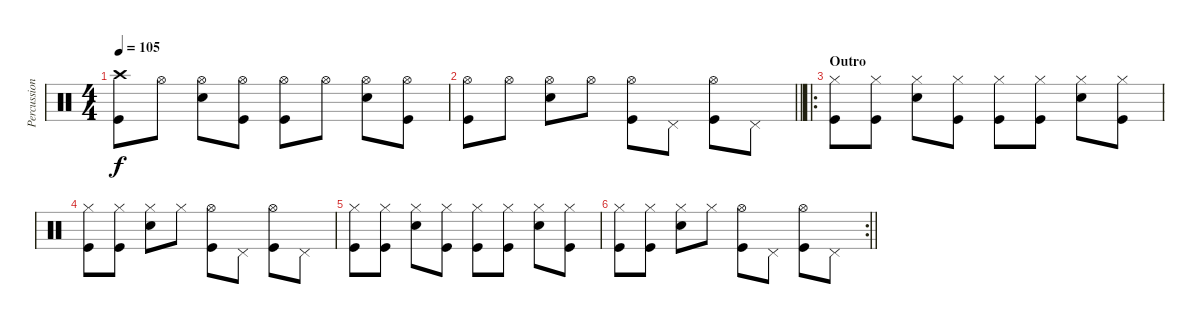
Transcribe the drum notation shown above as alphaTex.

\track ("Percussion" "Percussion") {instrument percussion}
\staff {score}
\articulation defaults
\ts (4 4)
\tempo 105
\clef neutral
\ks c
("Crash high (hit)" "Kick (hit)").8{dy f} "Hi-Hat (open)".8 ("Hi-Hat (open)" "Snare (hit) 2").8 ("Hi-Hat (open)" "Kick (hit)").8 ("Hi-Hat (open)" "Kick (hit)").8 "Hi-Hat (open)".8 ("Hi-Hat (open)" "Snare (hit) 2").8 ("Hi-Hat (open)" "Kick (hit)").8 |
\barLineRight lightlight
("Hi-Hat (open)" "Kick (hit)").8 "Hi-Hat (open)".8 ("Hi-Hat (open)" "Snare (hit) 2").8 "Hi-Hat (open)".8 ("Hi-Hat (open)" "Kick (hit)").8 "Pedal Hi-Hat (hit)".8 ("Hi-Hat (open)" "Kick (hit)").8 "Pedal Hi-Hat (hit)".8 |
\ro
\section ("" "Outro")
("Hi-Hat (closed)" "Kick (hit)").8 ("Hi-Hat (closed)" "Kick (hit)").8 ("Hi-Hat (closed)" "Electric Snare (hit)").8 ("Hi-Hat (closed)" "Kick (hit)").8 ("Hi-Hat (closed)" "Kick (hit)").8 ("Hi-Hat (closed)" "Kick (hit)").8 ("Hi-Hat (closed)" "Electric Snare (hit)").8 ("Hi-Hat (closed)" "Kick (hit)").8 |
("Hi-Hat (closed)" "Kick (hit)").8 ("Hi-Hat (closed)" "Kick (hit)").8 ("Hi-Hat (closed)" "Electric Snare (hit)").8 "Hi-Hat (closed)".8 ("Hi-Hat (open)" "Kick (hit)").8 "Pedal Hi-Hat (hit)".8 ("Hi-Hat (open)" "Kick (hit)").8 "Pedal Hi-Hat (hit)".8 |
("Hi-Hat (closed)" "Kick (hit)").8 ("Hi-Hat (closed)" "Kick (hit)").8 ("Hi-Hat (closed)" "Electric Snare (hit)").8 ("Hi-Hat (closed)" "Kick (hit)").8 ("Hi-Hat (closed)" "Kick (hit)").8 ("Hi-Hat (closed)" "Kick (hit)").8 ("Hi-Hat (closed)" "Electric Snare (hit)").8 ("Hi-Hat (closed)" "Kick (hit)").8 |
\rc 2
\barLineRight lightlight
("Hi-Hat (closed)" "Kick (hit)").8 ("Hi-Hat (closed)" "Kick (hit)").8 ("Hi-Hat (closed)" "Electric Snare (hit)").8 "Hi-Hat (closed)".8 ("Hi-Hat (open)" "Kick (hit)").8 "Pedal Hi-Hat (hit)".8 ("Hi-Hat (open)" "Kick (hit)").8 "Pedal Hi-Hat (hit)".8
